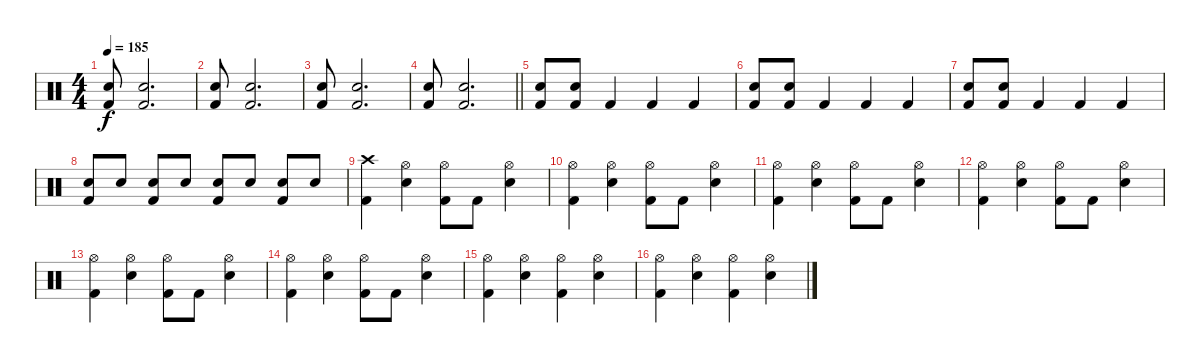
\track "" {instrument percussion}
\staff {score}
\articulation defaults
\ts (4 4)
\tempo 185
\clef neutral
\ks c
("Kick (hit) 2" "Snare (hit) 2").8{dy f} ("Kick (hit) 2" "Snare (hit) 2").2{d} |
("Kick (hit) 2" "Snare (hit) 2").8 ("Kick (hit) 2" "Snare (hit) 2").2{d} |
("Kick (hit) 2" "Snare (hit) 2").8 ("Kick (hit) 2" "Snare (hit) 2").2{d} |
\barLineRight lightlight
("Kick (hit) 2" "Snare (hit) 2").8 ("Kick (hit) 2" "Snare (hit) 2").2{d} |
("Kick (hit) 2" "Snare (hit) 2").8 ("Kick (hit) 2" "Snare (hit) 2").8 "Kick (hit) 2".4 "Kick (hit) 2".4 "Kick (hit) 2".4 |
("Kick (hit) 2" "Snare (hit) 2").8 ("Kick (hit) 2" "Snare (hit) 2").8 "Kick (hit) 2".4 "Kick (hit) 2".4 "Kick (hit) 2".4 |
("Kick (hit) 2" "Snare (hit) 2").8 ("Kick (hit) 2" "Snare (hit) 2").8 "Kick (hit) 2".4 "Kick (hit) 2".4 "Kick (hit) 2".4 |
("Kick (hit) 2" "Snare (hit) 2").8 "Snare (hit) 2".8 ("Kick (hit) 2" "Snare (hit) 2").8 "Snare (hit) 2".8 ("Kick (hit) 2" "Snare (hit) 2").8 "Snare (hit) 2".8 ("Kick (hit) 2" "Snare (hit) 2").8 "Snare (hit) 2".8 |
("Kick (hit) 2" "Crash high (hit)").4 ("Snare (hit) 2" "Hi-Hat (open)").4 ("Kick (hit) 2" "Hi-Hat (open)").8 "Kick (hit) 2".8 ("Snare (hit) 2" "Hi-Hat (open)").4 |
("Kick (hit) 2" "Hi-Hat (open)").4 ("Snare (hit) 2" "Hi-Hat (open)").4 ("Kick (hit) 2" "Hi-Hat (open)").8 "Kick (hit) 2".8 ("Snare (hit) 2" "Hi-Hat (open)").4 |
("Kick (hit) 2" "Hi-Hat (open)").4 ("Snare (hit) 2" "Hi-Hat (open)").4 ("Kick (hit) 2" "Hi-Hat (open)").8 "Kick (hit) 2".8 ("Snare (hit) 2" "Hi-Hat (open)").4 |
("Kick (hit) 2" "Hi-Hat (open)").4 ("Snare (hit) 2" "Hi-Hat (open)").4 ("Kick (hit) 2" "Hi-Hat (open)").8 "Kick (hit) 2".8 ("Snare (hit) 2" "Hi-Hat (open)").4 |
("Kick (hit) 2" "Hi-Hat (open)").4 ("Snare (hit) 2" "Hi-Hat (open)").4 ("Kick (hit) 2" "Hi-Hat (open)").8 "Kick (hit) 2".8 ("Snare (hit) 2" "Hi-Hat (open)").4 |
("Kick (hit) 2" "Hi-Hat (open)").4 ("Snare (hit) 2" "Hi-Hat (open)").4 ("Kick (hit) 2" "Hi-Hat (open)").8 "Kick (hit) 2".8 ("Snare (hit) 2" "Hi-Hat (open)").4 |
("Kick (hit) 2" "Hi-Hat (open)").4 ("Snare (hit) 2" "Hi-Hat (open)").4 ("Kick (hit) 2" "Hi-Hat (open)").4 ("Snare (hit) 2" "Hi-Hat (open)").4 |
("Kick (hit) 2" "Hi-Hat (open)").4 ("Snare (hit) 2" "Hi-Hat (open)").4 ("Kick (hit) 2" "Hi-Hat (open)").4 ("Snare (hit) 2" "Hi-Hat (open)").4
